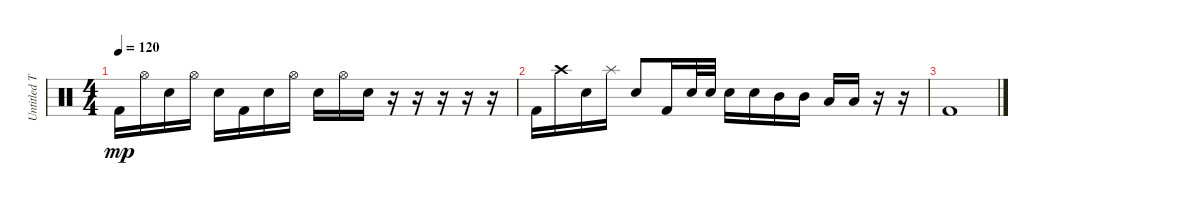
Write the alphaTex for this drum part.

\track ("Untitled Track" "Untitled T") {instrument percussion}
\staff {score}
\articulation defaults
\ts (4 4)
\tempo 120
\clef neutral
\ks c "Kick (hit) 2".16{dy mp} "Hi-Hat (open)".16 "Snare (hit) 2".16 "Hi-Hat (open)".16 "Snare (hit) 2".16 "Kick (hit) 2".16 "Snare (hit) 2".16 "Hi-Hat (open)".16 "Snare (hit) 2".16 "Hi-Hat (open)".16 "Snare (hit) 2".16
r.16 r.16 r.16 r.16 r.16 |
"Kick (hit) 2".16 "Crash high (hit)".16 "Snare (hit) 2".16 "Splash (hit)".16 "Snare (hit) 2".8 "Kick (hit) 2".16 "Snare (hit) 2".32 "Snare (hit) 2".32 "Snare (hit) 2".16 "Snare (hit) 2".16 "Mid Tom (hit)".16 "Mid Tom (hit)".16 "Low Tom (hit)".16 "Low Tom (hit)".16 r.16 r.16 |
"Kick (hit) 2".1
